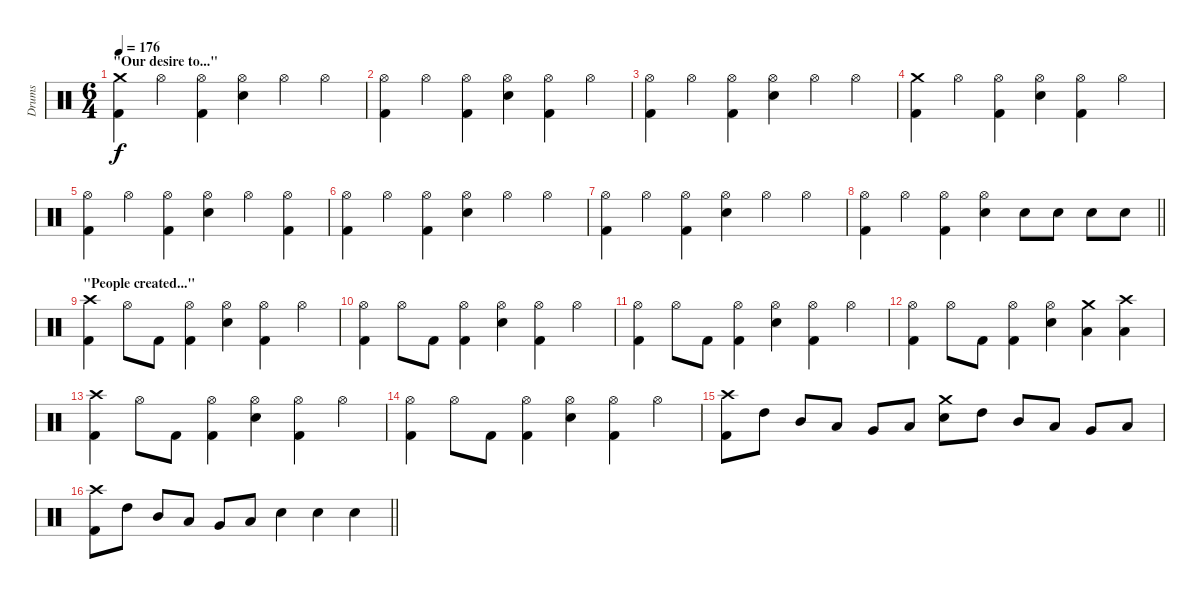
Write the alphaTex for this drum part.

\track ("Drums" "Drums") {instrument percussion}
\staff {score}
\articulation defaults
\ts (6 4)
\section ("" "\"Our desire to...\"")
\tempo 176
\clef neutral
\ks c
("Crash medium (hit)" "Kick (hit) 2").4{dy f} "Hi-Hat (open)".4 ("Hi-Hat (open)" "Kick (hit) 2").4 ("Hi-Hat (open)" "Snare (hit) 2").4 "Hi-Hat (open)".4 "Hi-Hat (open)".4 |
("Hi-Hat (open)" "Kick (hit) 2").4 "Hi-Hat (open)".4 ("Hi-Hat (open)" "Kick (hit) 2").4 ("Hi-Hat (open)" "Snare (hit) 2").4 ("Hi-Hat (open)" "Kick (hit) 2").4 "Hi-Hat (open)".4 |
("Hi-Hat (open)" "Kick (hit) 2").4 "Hi-Hat (open)".4 ("Hi-Hat (open)" "Kick (hit) 2").4 ("Hi-Hat (open)" "Snare (hit) 2").4 "Hi-Hat (open)".4 "Hi-Hat (open)".4 |
("Crash medium (hit)" "Kick (hit) 2").4 "Hi-Hat (open)".4 ("Hi-Hat (open)" "Kick (hit) 2").4 ("Hi-Hat (open)" "Snare (hit) 2").4 ("Hi-Hat (open)" "Kick (hit) 2").4 "Hi-Hat (open)".4 |
("Hi-Hat (open)" "Kick (hit) 2").4 "Hi-Hat (open)".4 ("Hi-Hat (open)" "Kick (hit) 2").4 ("Hi-Hat (open)" "Snare (hit) 2").4 "Hi-Hat (open)".4 ("Hi-Hat (open)" "Kick (hit) 2").4 |
("Hi-Hat (open)" "Kick (hit) 2").4 "Hi-Hat (open)".4 ("Hi-Hat (open)" "Kick (hit) 2").4 ("Hi-Hat (open)" "Snare (hit) 2").4 "Hi-Hat (open)".4 "Hi-Hat (open)".4 |
("Hi-Hat (open)" "Kick (hit) 2").4 "Hi-Hat (open)".4 ("Hi-Hat (open)" "Kick (hit) 2").4 ("Hi-Hat (open)" "Snare (hit) 2").4 "Hi-Hat (open)".4 "Hi-Hat (open)".4 |
\barLineRight lightlight
("Hi-Hat (open)" "Kick (hit) 2").4 "Hi-Hat (open)".4 ("Hi-Hat (open)" "Kick (hit) 2").4 ("Hi-Hat (open)" "Snare (hit) 2").4 "Snare (hit) 2".8 "Snare (hit) 2".8 "Snare (hit) 2".8 "Snare (hit) 2".8 |
\section ("" "\"People created...\"")
("Crash high (hit)" "Kick (hit) 2").4 "Hi-Hat (open)".8 "Kick (hit) 2".8 ("Hi-Hat (open)" "Kick (hit) 2").4 ("Hi-Hat (open)" "Snare (hit) 2").4 ("Hi-Hat (open)" "Kick (hit) 2").4 "Hi-Hat (open)".4 |
("Hi-Hat (open)" "Kick (hit) 2").4 "Hi-Hat (open)".8 "Kick (hit) 2".8 ("Hi-Hat (open)" "Kick (hit) 2").4 ("Hi-Hat (open)" "Snare (hit) 2").4 ("Hi-Hat (open)" "Kick (hit) 2").4 "Hi-Hat (open)".4 |
("Hi-Hat (open)" "Kick (hit) 2").4 "Hi-Hat (open)".8 "Kick (hit) 2".8 ("Hi-Hat (open)" "Kick (hit) 2").4 ("Hi-Hat (open)" "Snare (hit) 2").4 ("Hi-Hat (open)" "Kick (hit) 2").4 "Hi-Hat (open)".4 |
("Hi-Hat (open)" "Kick (hit) 2").4 "Hi-Hat (open)".8 "Kick (hit) 2".8 ("Hi-Hat (open)" "Kick (hit) 2").4 ("Hi-Hat (open)" "Snare (hit) 2").4 ("Crash medium (hit)" "Low Tom (hit)").4 ("Crash high (hit)" "Low Floor Tom (hit)").4 |
("Crash high (hit)" "Kick (hit) 2").4 "Hi-Hat (open)".8 "Kick (hit) 2".8 ("Hi-Hat (open)" "Kick (hit) 2").4 ("Hi-Hat (open)" "Snare (hit) 2").4 ("Hi-Hat (open)" "Kick (hit) 2").4 "Hi-Hat (open)".4 |
("Hi-Hat (open)" "Kick (hit) 2").4 "Hi-Hat (open)".8 "Kick (hit) 2".8 ("Hi-Hat (open)" "Kick (hit) 2").4 ("Hi-Hat (open)" "Snare (hit) 2").4 ("Hi-Hat (open)" "Kick (hit) 2").4 "Hi-Hat (open)".4 |
("Crash high (hit)" "Kick (hit) 2").8 "High Tom (hit)".8 "Mid Tom (hit)".8 "Low Tom (hit)".8 "Very Low Tom (hit)".8 "Low Floor Tom (hit)".8 ("Crash medium (hit)" "Snare (hit) 2").8 "High Tom (hit)".8 "Mid Tom (hit)".8 "Low Tom (hit)".8 "Very Low Tom (hit)".8 "Low Floor Tom (hit)".8 |
\barLineRight lightlight
("Crash high (hit)" "Kick (hit) 2").8 "High Tom (hit)".8 "Mid Tom (hit)".8 "Low Tom (hit)".8 "Very Low Tom (hit)".8 "Low Floor Tom (hit)".8 "Snare (hit) 2".4 "Snare (hit) 2".4 "Snare (hit) 2".4
